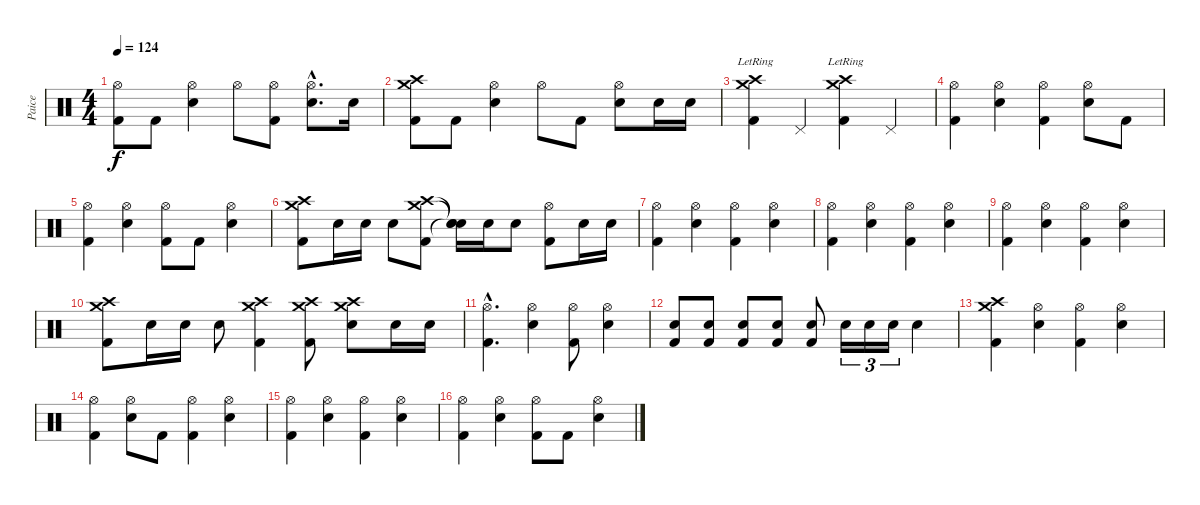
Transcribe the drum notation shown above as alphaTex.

\track ("Paice" "Paice") {instrument percussion}
\staff {score}
\articulation defaults
\ts (4 4)
\tempo 124
\clef neutral
\ks c
("Hi-Hat (open)" "Kick (hit) 2").8{dy f} "Kick (hit) 2".8 ("Hi-Hat (open)" "Electric Snare (hit)").4 "Hi-Hat (open)".8 ("Hi-Hat (open)" "Kick (hit) 2").8 ("Hi-Hat (open)"{hac} "Electric Snare (hit)"{hac}).8{d} "Electric Snare (hit)".16 |
("Crash high (hit)" "Crash medium (hit)" "Kick (hit) 2").8 "Kick (hit) 2".8 ("Hi-Hat (open)" "Electric Snare (hit)").4 "Hi-Hat (open)".8 "Kick (hit) 2".8 ("Hi-Hat (open)" "Electric Snare (hit)").8 "Electric Snare (hit)".16 "Electric Snare (hit)".16 |
("Crash high (hit)"{lr} "Crash medium (hit)"{lr} "Kick (hit) 2").4 "Pedal Hi-Hat (hit)".4 ("Crash high (hit)"{lr} "Crash medium (hit)"{lr} "Kick (hit) 2").4 "Pedal Hi-Hat (hit)".4 |
("Hi-Hat (open)" "Kick (hit) 2").4 ("Hi-Hat (open)" "Electric Snare (hit)").4 ("Hi-Hat (open)" "Kick (hit) 2").4 ("Hi-Hat (open)" "Electric Snare (hit)").8 "Kick (hit) 2".8 |
("Hi-Hat (open)" "Kick (hit) 2").4 ("Hi-Hat (open)" "Electric Snare (hit)").4 ("Hi-Hat (open)" "Kick (hit) 2").8 "Kick (hit) 2".8 ("Hi-Hat (open)" "Electric Snare (hit)").4 |
("Crash high (hit)" "Crash medium (hit)" "Kick (hit) 2").8 "Electric Snare (hit)".16 "Electric Snare (hit)".16 "Electric Snare (hit)".8 ("Crash high (hit)" "Crash medium (hit)" "Kick (hit) 2").8 ("Snare (hit)"{t} "Snare (hit)"{t} "Snare (hit)"{t}).16 "Electric Snare (hit)".16 "Electric Snare (hit)".8 ("Hi-Hat (open)" "Kick (hit) 2").8 "Electric Snare (hit)".16 "Electric Snare (hit)".16 |
("Hi-Hat (open)" "Kick (hit) 2").4 ("Hi-Hat (open)" "Electric Snare (hit)").4 ("Hi-Hat (open)" "Kick (hit) 2").4 ("Hi-Hat (open)" "Electric Snare (hit)").4 |
("Hi-Hat (open)" "Kick (hit) 2").4 ("Hi-Hat (open)" "Electric Snare (hit)").4 ("Hi-Hat (open)" "Kick (hit) 2").4 ("Hi-Hat (open)" "Electric Snare (hit)").4 |
("Hi-Hat (open)" "Kick (hit) 2").4 ("Hi-Hat (open)" "Electric Snare (hit)").4 ("Hi-Hat (open)" "Kick (hit) 2").4 ("Hi-Hat (open)" "Electric Snare (hit)").4 |
("Crash high (hit)" "Crash medium (hit)" "Kick (hit) 2").8 "Electric Snare (hit)".16 "Electric Snare (hit)".16 "Electric Snare (hit)".8 ("Crash high (hit)" "Crash medium (hit)" "Kick (hit) 2").4 ("Crash high (hit)" "Crash medium (hit)" "Kick (hit) 2").8 ("Crash high (hit)" "Crash medium (hit)" "Electric Snare (hit)").8 "Electric Snare (hit)".16 "Electric Snare (hit)".16 |
("Hi-Hat (open)"{hac} "Kick (hit) 2"{hac}).4{d} ("Hi-Hat (open)" "Electric Snare (hit)").4 ("Hi-Hat (open)" "Kick (hit) 2").8 ("Hi-Hat (open)" "Electric Snare (hit)").4 |
("Electric Snare (hit)" "Kick (hit) 2").8 ("Electric Snare (hit)" "Kick (hit) 2").8 ("Electric Snare (hit)" "Kick (hit) 2").8 ("Electric Snare (hit)" "Kick (hit) 2").8 ("Electric Snare (hit)" "Kick (hit) 2").8 "Electric Snare (hit)".16{tu (3 2)} "Electric Snare (hit)".16{tu (3 2)} "Electric Snare (hit)".16{tu (3 2)} "Electric Snare (hit)".4 |
("Crash high (hit)" "Crash medium (hit)" "Kick (hit) 2").4 ("Hi-Hat (open)" "Electric Snare (hit)").4 ("Hi-Hat (open)" "Kick (hit) 2").4 ("Hi-Hat (open)" "Electric Snare (hit)").4 |
("Hi-Hat (open)" "Kick (hit) 2").4 ("Hi-Hat (open)" "Electric Snare (hit)").8 "Kick (hit) 2".8 ("Hi-Hat (open)" "Kick (hit) 2").4 ("Hi-Hat (open)" "Electric Snare (hit)").4 |
("Hi-Hat (open)" "Kick (hit) 2").4 ("Hi-Hat (open)" "Electric Snare (hit)").4 ("Hi-Hat (open)" "Kick (hit) 2").4 ("Hi-Hat (open)" "Electric Snare (hit)").4 |
("Hi-Hat (open)" "Kick (hit) 2").4 ("Hi-Hat (open)" "Electric Snare (hit)").4 ("Hi-Hat (open)" "Kick (hit) 2").8 "Kick (hit) 2".8 ("Hi-Hat (open)" "Electric Snare (hit)").4
